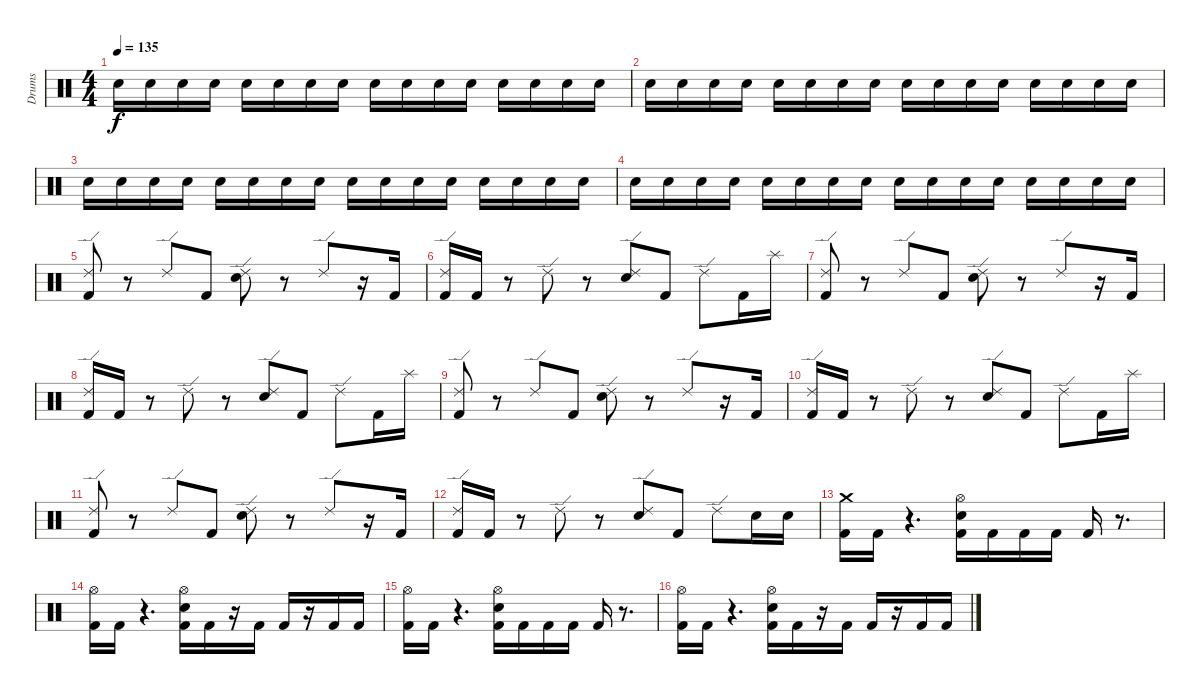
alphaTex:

\track ("Drums" "Drums") {instrument percussion}
\staff {score}
\articulation defaults
\ts (4 4)
\tempo 135
\clef neutral
\ks c "Snare (hit) 2".16{dy f volume 16} "Snare (hit) 2".16 "Snare (hit) 2".16 "Snare (hit) 2".16 "Snare (hit) 2".16 "Snare (hit) 2".16 "Snare (hit) 2".16 "Snare (hit) 2".16 "Snare (hit) 2".16 "Snare (hit) 2".16 "Snare (hit) 2".16 "Snare (hit) 2".16 "Snare (hit) 2".16 "Snare (hit) 2".16 "Snare (hit) 2".16 "Snare (hit) 2".16
|
"Snare (hit) 2".16 "Snare (hit) 2".16 "Snare (hit) 2".16 "Snare (hit) 2".16 "Snare (hit) 2".16 "Snare (hit) 2".16 "Snare (hit) 2".16 "Snare (hit) 2".16 "Snare (hit) 2".16 "Snare (hit) 2".16 "Snare (hit) 2".16 "Snare (hit) 2".16 "Snare (hit) 2".16 "Snare (hit) 2".16 "Snare (hit) 2".16 "Snare (hit) 2".16 |
"Snare (hit) 2".16 "Snare (hit) 2".16 "Snare (hit) 2".16 "Snare (hit) 2".16 "Snare (hit) 2".16 "Snare (hit) 2".16 "Snare (hit) 2".16 "Snare (hit) 2".16 "Snare (hit) 2".16 "Snare (hit) 2".16 "Snare (hit) 2".16 "Snare (hit) 2".16 "Snare (hit) 2".16 "Snare (hit) 2".16 "Snare (hit) 2".16 "Snare (hit) 2".16 |
"Snare (hit) 2".16 "Snare (hit) 2".16 "Snare (hit) 2".16 "Snare (hit) 2".16 "Snare (hit) 2".16 "Snare (hit) 2".16 "Snare (hit) 2".16 "Snare (hit) 2".16 "Snare (hit) 2".16 "Snare (hit) 2".16 "Snare (hit) 2".16 "Snare (hit) 2".16 "Snare (hit) 2".16 "Snare (hit) 2".16 "Snare (hit) 2".16 "Snare (hit) 2".16 |
("Ride (edge) 2" "Kick (hit) 2").8 r.8 "Ride (edge) 2".8 "Kick (hit) 2".8 ("Ride (edge) 2" "Snare (hit) 2").8 r.8 "Ride (edge) 2".8 r.16 "Kick (hit) 2".16 |
("Ride (edge) 2" "Kick (hit) 2").16 "Kick (hit) 2".16 r.8 "Ride (edge) 2".8 r.8 ("Ride (edge) 2" "Snare (hit) 2").8 "Kick (hit) 2".8 "Ride (edge) 2".8 "Kick (hit) 2".16 "Splash (hit)".16 |
("Ride (edge) 2" "Kick (hit) 2").8 r.8 "Ride (edge) 2".8 "Kick (hit) 2".8 ("Ride (edge) 2" "Snare (hit) 2").8 r.8 "Ride (edge) 2".8 r.16 "Kick (hit) 2".16 |
("Ride (edge) 2" "Kick (hit) 2").16 "Kick (hit) 2".16 r.8 "Ride (edge) 2".8 r.8 ("Ride (edge) 2" "Snare (hit) 2").8 "Kick (hit) 2".8 "Ride (edge) 2".8 "Kick (hit) 2".16 "Splash (hit)".16 |
("Ride (edge) 2" "Kick (hit) 2").8 r.8 "Ride (edge) 2".8 "Kick (hit) 2".8 ("Ride (edge) 2" "Snare (hit) 2").8 r.8 "Ride (edge) 2".8 r.16 "Kick (hit) 2".16 |
("Ride (edge) 2" "Kick (hit) 2").16 "Kick (hit) 2".16 r.8 "Ride (edge) 2".8 r.8 ("Ride (edge) 2" "Snare (hit) 2").8 "Kick (hit) 2".8 "Ride (edge) 2".8 "Kick (hit) 2".16 "Splash (hit)".16 |
("Ride (edge) 2" "Kick (hit) 2").8 r.8 "Ride (edge) 2".8 "Kick (hit) 2".8 ("Ride (edge) 2" "Snare (hit) 2").8 r.8 "Ride (edge) 2".8 r.16 "Kick (hit) 2".16 |
("Ride (edge) 2" "Kick (hit) 2").16 "Kick (hit) 2".16 r.8 "Ride (edge) 2".8 r.8 ("Ride (edge) 2" "Snare (hit) 2").8 "Kick (hit) 2".8 "Ride (edge) 2".8 "Snare (hit) 2".16 "Snare (hit) 2".16 |
("Crash medium (hit)" "Kick (hit) 2").16 "Kick (hit) 2".16 r.4{d} ("Snare (hit) 2" "Kick (hit) 2" "Hi-Hat (open)").16 "Kick (hit) 2".16 "Kick (hit) 2".16 "Kick (hit) 2".16 "Kick (hit) 2".16 r.8{d} |
("Kick (hit) 2" "Hi-Hat (open)").16 "Kick (hit) 2".16 r.4{d} ("Snare (hit) 2" "Kick (hit) 2" "Hi-Hat (open)").16 "Kick (hit) 2".16 r.16 "Kick (hit) 2".16 "Kick (hit) 2".16 r.16 "Kick (hit) 2".16 "Kick (hit) 2".16 |
("Hi-Hat (open)" "Kick (hit) 2").16 "Kick (hit) 2".16 r.4{d} ("Snare (hit) 2" "Kick (hit) 2" "Hi-Hat (open)").16 "Kick (hit) 2".16 "Kick (hit) 2".16 "Kick (hit) 2".16 "Kick (hit) 2".16 r.8{d} |
("Kick (hit) 2" "Hi-Hat (open)").16 "Kick (hit) 2".16 r.4{d} ("Snare (hit) 2" "Kick (hit) 2" "Hi-Hat (open)").16 "Kick (hit) 2".16 r.16 "Kick (hit) 2".16 "Kick (hit) 2".16 r.16 "Kick (hit) 2".16 "Kick (hit) 2".16
